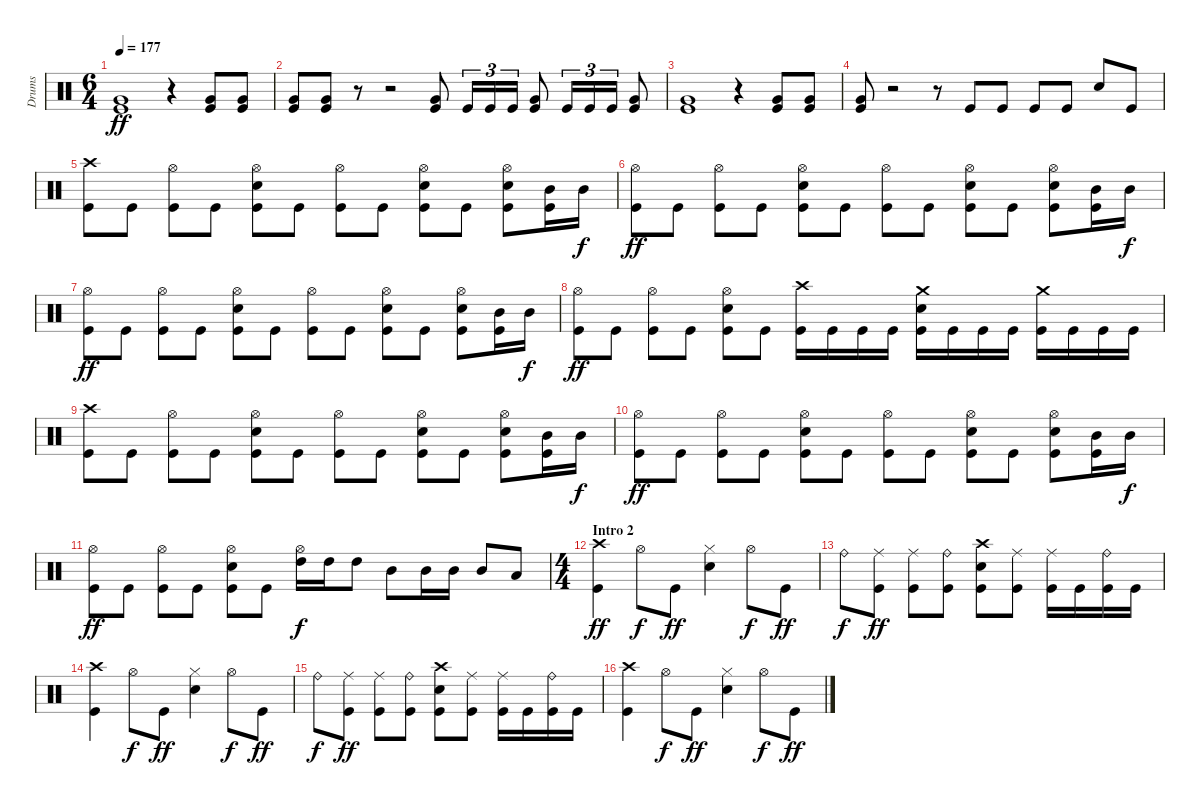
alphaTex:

\track ("Drums" "Drums") {instrument percussion}
\staff {score}
\articulation defaults
\ts (6 4)
\tempo 177
\clef neutral
\ks c
("Very Low Tom (hit)" "Kick (hit)").1{dy ff} r.4 ("Very Low Tom (hit)" "Kick (hit)").8 ("Very Low Tom (hit)" "Kick (hit)").8 |
("Very Low Tom (hit)" "Kick (hit)").8 ("Very Low Tom (hit)" "Kick (hit)").8 r.8 r.2 ("Very Low Tom (hit)" "Kick (hit)").8 "Kick (hit)".16{tu (3 2)} "Kick (hit)".16{tu (3 2)} "Kick (hit)".16{tu (3 2)} ("Very Low Tom (hit)" "Kick (hit)").8 "Kick (hit)".16{tu (3 2)} "Kick (hit)".16{tu (3 2)} "Kick (hit)".16{tu (3 2)} ("Very Low Tom (hit)" "Kick (hit)").8 |
("Very Low Tom (hit)" "Kick (hit)").1 r.4 ("Very Low Tom (hit)" "Kick (hit)").8 ("Very Low Tom (hit)" "Kick (hit)").8 |
("Very Low Tom (hit)" "Kick (hit)").8 r.2 r.8 "Kick (hit)".8 "Kick (hit)".8 "Kick (hit)".8 "Kick (hit)".8 "Electric Snare (hit)".8 "Kick (hit)".8 |
("Crash high (hit)" "Kick (hit)").8 "Kick (hit)".8 ("Hi-Hat (open)" "Kick (hit)").8 "Kick (hit)".8 ("Hi-Hat (open)" "Electric Snare (hit)" "Kick (hit)").8 "Kick (hit)".8 ("Hi-Hat (open)" "Kick (hit)").8 "Kick (hit)".8 ("Hi-Hat (open)" "Electric Snare (hit)" "Kick (hit)").8 "Kick (hit)".8 ("Hi-Hat (open)" "Electric Snare (hit)" "Kick (hit)").8 ("Mid Tom (hit)" "Kick (hit)").16 "Mid Tom (hit)".16{dy f} |
("Hi-Hat (open)" "Kick (hit)").8{dy ff} "Kick (hit)".8 ("Hi-Hat (open)" "Kick (hit)").8 "Kick (hit)".8 ("Hi-Hat (open)" "Electric Snare (hit)" "Kick (hit)").8 "Kick (hit)".8 ("Hi-Hat (open)" "Kick (hit)").8 "Kick (hit)".8 ("Hi-Hat (open)" "Electric Snare (hit)" "Kick (hit)").8 "Kick (hit)".8 ("Hi-Hat (open)" "Electric Snare (hit)" "Kick (hit)").8 ("Mid Tom (hit)" "Kick (hit)").16 "Mid Tom (hit)".16{dy f} |
("Hi-Hat (open)" "Kick (hit)").8{dy ff} "Kick (hit)".8 ("Hi-Hat (open)" "Kick (hit)").8 "Kick (hit)".8 ("Hi-Hat (open)" "Electric Snare (hit)" "Kick (hit)").8 "Kick (hit)".8 ("Hi-Hat (open)" "Kick (hit)").8 "Kick (hit)".8 ("Hi-Hat (open)" "Electric Snare (hit)" "Kick (hit)").8 "Kick (hit)".8 ("Hi-Hat (open)" "Electric Snare (hit)" "Kick (hit)").8 ("Mid Tom (hit)" "Kick (hit)").16 "Mid Tom (hit)".16{dy f} |
("Hi-Hat (open)" "Kick (hit)").8{dy ff} "Kick (hit)".8 ("Hi-Hat (open)" "Kick (hit)").8 "Kick (hit)".8 ("Hi-Hat (open)" "Electric Snare (hit)" "Kick (hit)").8 "Kick (hit)".8 ("Crash high (hit)" "Kick (hit)").16 "Kick (hit)".16 "Kick (hit)".16 "Kick (hit)".16 ("Crash medium (hit)" "Electric Snare (hit)" "Kick (hit)").16 "Kick (hit)".16 "Kick (hit)".16 "Kick (hit)".16 ("Crash medium (hit)" "Kick (hit)").16 "Kick (hit)".16 "Kick (hit)".16 "Kick (hit)".16 |
("Crash high (hit)" "Kick (hit)").8 "Kick (hit)".8 ("Hi-Hat (open)" "Kick (hit)").8 "Kick (hit)".8 ("Hi-Hat (open)" "Electric Snare (hit)" "Kick (hit)").8 "Kick (hit)".8 ("Hi-Hat (open)" "Kick (hit)").8 "Kick (hit)".8 ("Hi-Hat (open)" "Electric Snare (hit)" "Kick (hit)").8 "Kick (hit)".8 ("Hi-Hat (open)" "Electric Snare (hit)" "Kick (hit)").8 ("Mid Tom (hit)" "Kick (hit)").16 "Mid Tom (hit)".16{dy f} |
("Hi-Hat (open)" "Kick (hit)").8{dy ff} "Kick (hit)".8 ("Hi-Hat (open)" "Kick (hit)").8 "Kick (hit)".8 ("Hi-Hat (open)" "Electric Snare (hit)" "Kick (hit)").8 "Kick (hit)".8 ("Hi-Hat (open)" "Kick (hit)").8 "Kick (hit)".8 ("Hi-Hat (open)" "Electric Snare (hit)" "Kick (hit)").8 "Kick (hit)".8 ("Hi-Hat (open)" "Electric Snare (hit)" "Kick (hit)").8 ("Mid Tom (hit)" "Kick (hit)").16 "Mid Tom (hit)".16{dy f} |
("Hi-Hat (open)" "Kick (hit)").8{dy ff} "Kick (hit)".8 ("Hi-Hat (open)" "Kick (hit)").8 "Kick (hit)".8 ("Hi-Hat (open)" "Electric Snare (hit)" "Kick (hit)").8 "Kick (hit)".8 ("Hi-Hat (open)" "High Tom (hit)").16{dy f} "High Tom (hit)".16 "High Tom (hit)".8 "Mid Tom (hit)".8 "Mid Tom (hit)".16 "Mid Tom (hit)".16 "Mid Tom (hit)".8 "Low Tom (hit)".8 |
\ts (4 4)
\section ("" "Intro 2")
("Crash high (hit)" "Kick (hit)").4{dy ff} "Hi-Hat (open)".8{dy f} "Kick (hit)".8{dy ff} ("Hi-Hat (closed)" "Electric Snare (hit)").4 "Hi-Hat (open)".8{dy f} "Kick (hit)".8{dy ff} |
"Ride (bell)".8{dy f} ("Ride (middle)" "Kick (hit)").8{dy ff} ("Ride (middle)" "Kick (hit)").8 ("Ride (bell)" "Kick (hit)").8 ("Crash high (hit)" "Electric Snare (hit)" "Kick (hit)").8 ("Ride (middle)" "Kick (hit)").8 ("Ride (middle)" "Kick (hit)").16 "Kick (hit)".16 ("Ride (bell)" "Kick (hit)").16 "Kick (hit)".16 |
("Crash high (hit)" "Kick (hit)").4 "Hi-Hat (open)".8{dy f} "Kick (hit)".8{dy ff} ("Hi-Hat (closed)" "Electric Snare (hit)").4 "Hi-Hat (open)".8{dy f} "Kick (hit)".8{dy ff} |
"Ride (bell)".8{dy f} ("Ride (middle)" "Kick (hit)").8{dy ff} ("Ride (middle)" "Kick (hit)").8 ("Ride (bell)" "Kick (hit)").8 ("Crash high (hit)" "Electric Snare (hit)" "Kick (hit)").8 ("Ride (middle)" "Kick (hit)").8 ("Ride (middle)" "Kick (hit)").16 "Kick (hit)".16 ("Ride (bell)" "Kick (hit)").16 "Kick (hit)".16 |
("Crash high (hit)" "Kick (hit)").4 "Hi-Hat (open)".8{dy f} "Kick (hit)".8{dy ff} ("Hi-Hat (closed)" "Electric Snare (hit)").4 "Hi-Hat (open)".8{dy f} "Kick (hit)".8{dy ff}
